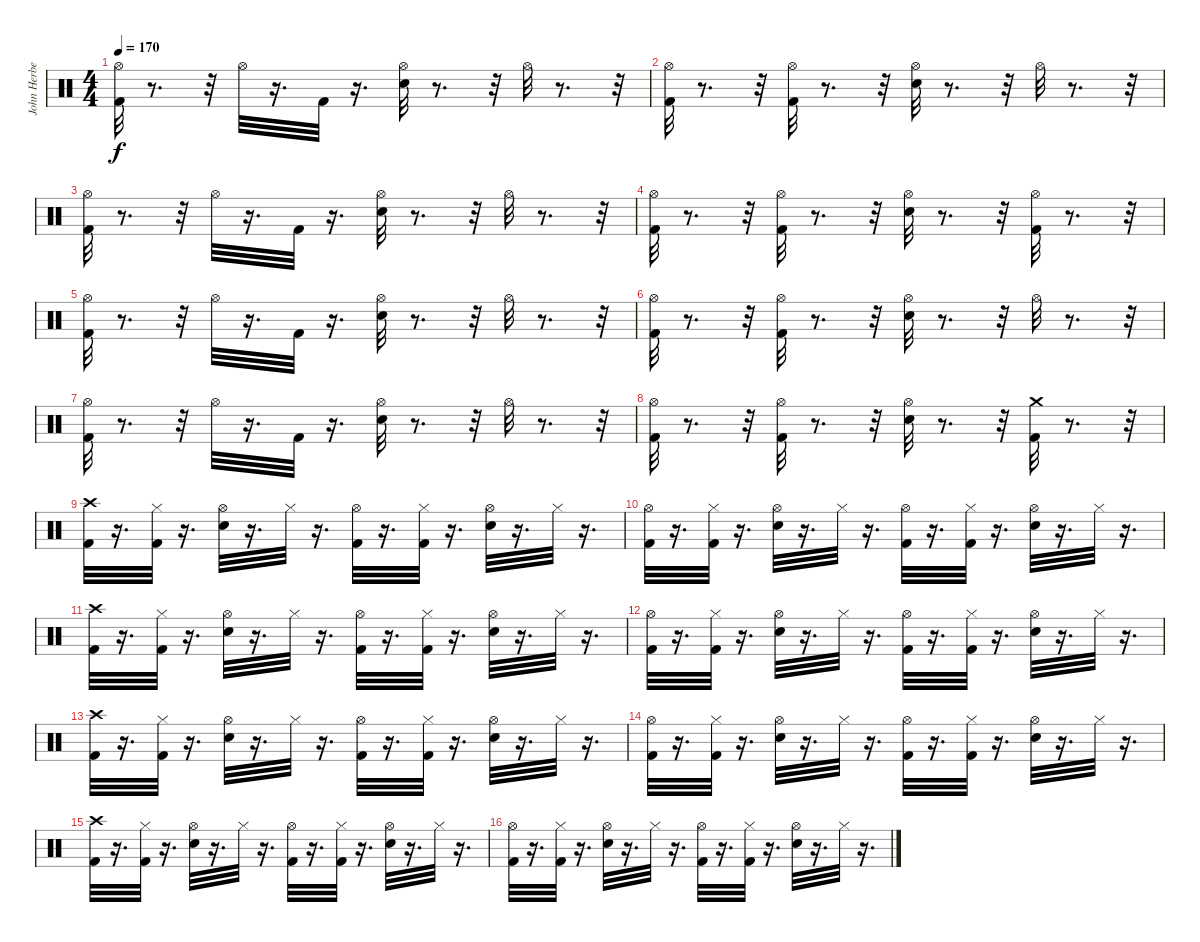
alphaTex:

\track ("John Herbert" "John Herbe") {instrument percussion}
\staff {score}
\articulation defaults
\ts (4 4)
\tempo 170
\clef neutral
\ks c
("Hi-Hat (open)" "Kick (hit) 2").32{dy f} r.8{d} r.32 "Hi-Hat (open)".32 r.16{d} "Kick (hit) 2".32 r.16{d} ("Hi-Hat (open)" "Snare (hit) 2").32 r.8{d} r.32 "Hi-Hat (open)".32 r.8{d} r.32 |
("Hi-Hat (open)" "Kick (hit) 2").32 r.8{d} r.32 ("Hi-Hat (open)" "Kick (hit) 2").32 r.8{d} r.32 ("Hi-Hat (open)" "Snare (hit) 2").32 r.8{d} r.32 "Hi-Hat (open)".32 r.8{d} r.32 |
("Hi-Hat (open)" "Kick (hit) 2").32 r.8{d} r.32 "Hi-Hat (open)".32 r.16{d} "Kick (hit) 2".32 r.16{d} ("Hi-Hat (open)" "Snare (hit) 2").32 r.8{d} r.32 "Hi-Hat (open)".32 r.8{d} r.32 |
("Hi-Hat (open)" "Kick (hit) 2").32 r.8{d} r.32 ("Hi-Hat (open)" "Kick (hit) 2").32 r.8{d} r.32 ("Hi-Hat (open)" "Snare (hit) 2").32 r.8{d} r.32 ("Kick (hit) 2" "Hi-Hat (open)").32 r.8{d} r.32 |
("Hi-Hat (open)" "Kick (hit) 2").32 r.8{d} r.32 "Hi-Hat (open)".32 r.16{d} "Kick (hit) 2".32 r.16{d} ("Hi-Hat (open)" "Snare (hit) 2").32 r.8{d} r.32 "Hi-Hat (open)".32 r.8{d} r.32 |
("Hi-Hat (open)" "Kick (hit) 2").32 r.8{d} r.32 ("Hi-Hat (open)" "Kick (hit) 2").32 r.8{d} r.32 ("Hi-Hat (open)" "Snare (hit) 2").32 r.8{d} r.32 "Hi-Hat (open)".32 r.8{d} r.32 |
("Hi-Hat (open)" "Kick (hit) 2").32 r.8{d} r.32 "Hi-Hat (open)".32 r.16{d} "Kick (hit) 2".32 r.16{d} ("Hi-Hat (open)" "Snare (hit) 2").32 r.8{d} r.32 "Hi-Hat (open)".32 r.8{d} r.32 |
("Hi-Hat (open)" "Kick (hit) 2").32 r.8{d} r.32 ("Hi-Hat (open)" "Kick (hit) 2").32 r.8{d} r.32 ("Hi-Hat (open)" "Snare (hit) 2").32 r.8{d} r.32 ("Kick (hit) 2" "Crash medium (hit)").32 r.8{d} r.32 |
("Crash high (hit)" "Kick (hit) 2").32 r.16{d} ("Hi-Hat (closed)" "Kick (hit) 2").32 r.16{d} ("Hi-Hat (open)" "Snare (hit) 2").32 r.16{d} "Hi-Hat (closed)".32 r.16{d} ("Hi-Hat (open)" "Kick (hit) 2").32 r.16{d} ("Hi-Hat (closed)" "Kick (hit) 2").32 r.16{d} ("Hi-Hat (open)" "Snare (hit) 2").32 r.16{d} "Hi-Hat (closed)".32 r.16{d} |
("Hi-Hat (open)" "Kick (hit) 2").32 r.16{d} ("Hi-Hat (closed)" "Kick (hit) 2").32 r.16{d} ("Hi-Hat (open)" "Snare (hit) 2").32 r.16{d} "Hi-Hat (closed)".32 r.16{d} ("Hi-Hat (open)" "Kick (hit) 2").32 r.16{d} ("Hi-Hat (closed)" "Kick (hit) 2").32 r.16{d} ("Hi-Hat (open)" "Snare (hit) 2").32 r.16{d} "Hi-Hat (closed)".32 r.16{d} |
("Crash high (hit)" "Kick (hit) 2").32 r.16{d} ("Hi-Hat (closed)" "Kick (hit) 2").32 r.16{d} ("Hi-Hat (open)" "Snare (hit) 2").32 r.16{d} "Hi-Hat (closed)".32 r.16{d} ("Hi-Hat (open)" "Kick (hit) 2").32 r.16{d} ("Hi-Hat (closed)" "Kick (hit) 2").32 r.16{d} ("Hi-Hat (open)" "Snare (hit) 2").32 r.16{d} "Hi-Hat (closed)".32 r.16{d} |
("Hi-Hat (open)" "Kick (hit) 2").32 r.16{d} ("Hi-Hat (closed)" "Kick (hit) 2").32 r.16{d} ("Hi-Hat (open)" "Snare (hit) 2").32 r.16{d} "Hi-Hat (closed)".32 r.16{d} ("Hi-Hat (open)" "Kick (hit) 2").32 r.16{d} ("Hi-Hat (closed)" "Kick (hit) 2").32 r.16{d} ("Hi-Hat (open)" "Snare (hit) 2").32 r.16{d} "Hi-Hat (closed)".32 r.16{d} |
("Crash high (hit)" "Kick (hit) 2").32 r.16{d} ("Hi-Hat (closed)" "Kick (hit) 2").32 r.16{d} ("Hi-Hat (open)" "Snare (hit) 2").32 r.16{d} "Hi-Hat (closed)".32 r.16{d} ("Hi-Hat (open)" "Kick (hit) 2").32 r.16{d} ("Hi-Hat (closed)" "Kick (hit) 2").32 r.16{d} ("Hi-Hat (open)" "Snare (hit) 2").32 r.16{d} "Hi-Hat (closed)".32 r.16{d} |
("Hi-Hat (open)" "Kick (hit) 2").32 r.16{d} ("Hi-Hat (closed)" "Kick (hit) 2").32 r.16{d} ("Hi-Hat (open)" "Snare (hit) 2").32 r.16{d} "Hi-Hat (closed)".32 r.16{d} ("Hi-Hat (open)" "Kick (hit) 2").32 r.16{d} ("Hi-Hat (closed)" "Kick (hit) 2").32 r.16{d} ("Hi-Hat (open)" "Snare (hit) 2").32 r.16{d} "Hi-Hat (closed)".32 r.16{d} |
("Crash high (hit)" "Kick (hit) 2").32 r.16{d} ("Hi-Hat (closed)" "Kick (hit) 2").32 r.16{d} ("Hi-Hat (open)" "Snare (hit) 2").32 r.16{d} "Hi-Hat (closed)".32 r.16{d} ("Hi-Hat (open)" "Kick (hit) 2").32 r.16{d} ("Hi-Hat (closed)" "Kick (hit) 2").32 r.16{d} ("Hi-Hat (open)" "Snare (hit) 2").32 r.16{d} "Hi-Hat (closed)".32 r.16{d} |
("Hi-Hat (open)" "Kick (hit) 2").32 r.16{d} ("Hi-Hat (closed)" "Kick (hit) 2").32 r.16{d} ("Hi-Hat (open)" "Snare (hit) 2").32 r.16{d} "Hi-Hat (closed)".32 r.16{d} ("Hi-Hat (open)" "Kick (hit) 2").32 r.16{d} ("Hi-Hat (closed)" "Kick (hit) 2").32 r.16{d} ("Hi-Hat (open)" "Snare (hit) 2").32 r.16{d} "Hi-Hat (closed)".32 r.16{d}
